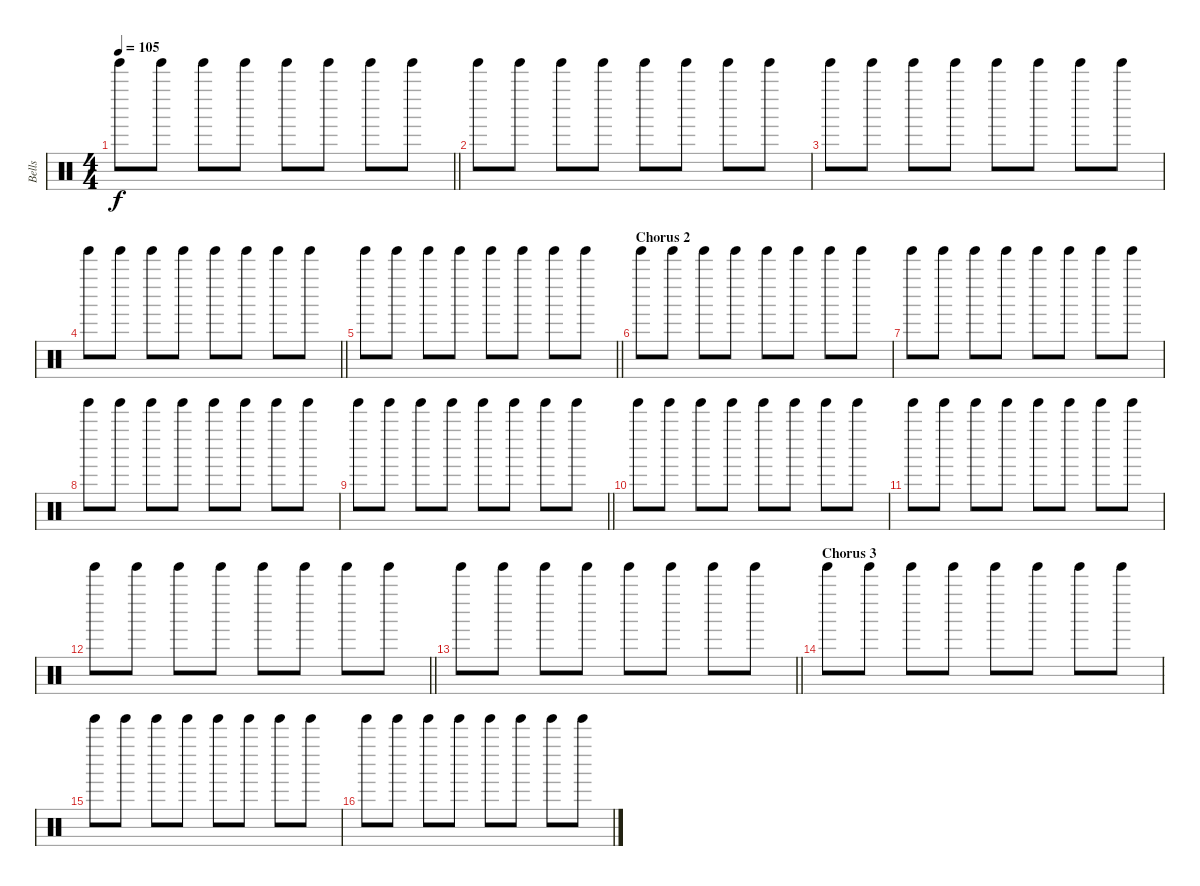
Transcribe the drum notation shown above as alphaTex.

\track ("Bells" "Bells") {instrument percussion}
\staff {score}
\articulation defaults
\ts (4 4)
\tempo 105
\clef neutral
\barLineRight lightlight
\ks c "Tinkle Bell (hit)".8{dy f} "Tinkle Bell (hit)".8 "Tinkle Bell (hit)".8 "Tinkle Bell (hit)".8 "Tinkle Bell (hit)".8 "Tinkle Bell (hit)".8 "Tinkle Bell (hit)".8 "Tinkle Bell (hit)".8
|
"Tinkle Bell (hit)".8 "Tinkle Bell (hit)".8 "Tinkle Bell (hit)".8 "Tinkle Bell (hit)".8 "Tinkle Bell (hit)".8 "Tinkle Bell (hit)".8 "Tinkle Bell (hit)".8 "Tinkle Bell (hit)".8 |
"Tinkle Bell (hit)".8 "Tinkle Bell (hit)".8 "Tinkle Bell (hit)".8 "Tinkle Bell (hit)".8 "Tinkle Bell (hit)".8 "Tinkle Bell (hit)".8 "Tinkle Bell (hit)".8 "Tinkle Bell (hit)".8 |
\barLineRight lightlight "Tinkle Bell (hit)".8 "Tinkle Bell (hit)".8 "Tinkle Bell (hit)".8 "Tinkle Bell (hit)".8 "Tinkle Bell (hit)".8 "Tinkle Bell (hit)".8 "Tinkle Bell (hit)".8 "Tinkle Bell (hit)".8
|
\barLineRight lightlight "Tinkle Bell (hit)".8 "Tinkle Bell (hit)".8 "Tinkle Bell (hit)".8 "Tinkle Bell (hit)".8 "Tinkle Bell (hit)".8 "Tinkle Bell (hit)".8 "Tinkle Bell (hit)".8 "Tinkle Bell (hit)".8
|
\section ("" "Chorus 2")
"Tinkle Bell (hit)".8 "Tinkle Bell (hit)".8 "Tinkle Bell (hit)".8 "Tinkle Bell (hit)".8 "Tinkle Bell (hit)".8 "Tinkle Bell (hit)".8 "Tinkle Bell (hit)".8 "Tinkle Bell (hit)".8 |
"Tinkle Bell (hit)".8 "Tinkle Bell (hit)".8 "Tinkle Bell (hit)".8 "Tinkle Bell (hit)".8 "Tinkle Bell (hit)".8 "Tinkle Bell (hit)".8 "Tinkle Bell (hit)".8 "Tinkle Bell (hit)".8 |
"Tinkle Bell (hit)".8 "Tinkle Bell (hit)".8 "Tinkle Bell (hit)".8 "Tinkle Bell (hit)".8 "Tinkle Bell (hit)".8 "Tinkle Bell (hit)".8 "Tinkle Bell (hit)".8 "Tinkle Bell (hit)".8 |
\barLineRight lightlight "Tinkle Bell (hit)".8 "Tinkle Bell (hit)".8 "Tinkle Bell (hit)".8 "Tinkle Bell (hit)".8 "Tinkle Bell (hit)".8 "Tinkle Bell (hit)".8 "Tinkle Bell (hit)".8 "Tinkle Bell (hit)".8
|
"Tinkle Bell (hit)".8 "Tinkle Bell (hit)".8 "Tinkle Bell (hit)".8 "Tinkle Bell (hit)".8 "Tinkle Bell (hit)".8 "Tinkle Bell (hit)".8 "Tinkle Bell (hit)".8 "Tinkle Bell (hit)".8 |
"Tinkle Bell (hit)".8 "Tinkle Bell (hit)".8 "Tinkle Bell (hit)".8 "Tinkle Bell (hit)".8 "Tinkle Bell (hit)".8 "Tinkle Bell (hit)".8 "Tinkle Bell (hit)".8 "Tinkle Bell (hit)".8 |
\barLineRight lightlight "Tinkle Bell (hit)".8 "Tinkle Bell (hit)".8 "Tinkle Bell (hit)".8 "Tinkle Bell (hit)".8 "Tinkle Bell (hit)".8 "Tinkle Bell (hit)".8 "Tinkle Bell (hit)".8 "Tinkle Bell (hit)".8
|
\barLineRight lightlight "Tinkle Bell (hit)".8 "Tinkle Bell (hit)".8 "Tinkle Bell (hit)".8 "Tinkle Bell (hit)".8 "Tinkle Bell (hit)".8 "Tinkle Bell (hit)".8 "Tinkle Bell (hit)".8 "Tinkle Bell (hit)".8
|
\section ("" "Chorus 3")
"Tinkle Bell (hit)".8 "Tinkle Bell (hit)".8 "Tinkle Bell (hit)".8 "Tinkle Bell (hit)".8 "Tinkle Bell (hit)".8 "Tinkle Bell (hit)".8 "Tinkle Bell (hit)".8 "Tinkle Bell (hit)".8 |
"Tinkle Bell (hit)".8 "Tinkle Bell (hit)".8 "Tinkle Bell (hit)".8 "Tinkle Bell (hit)".8 "Tinkle Bell (hit)".8 "Tinkle Bell (hit)".8 "Tinkle Bell (hit)".8 "Tinkle Bell (hit)".8 |
"Tinkle Bell (hit)".8 "Tinkle Bell (hit)".8 "Tinkle Bell (hit)".8 "Tinkle Bell (hit)".8 "Tinkle Bell (hit)".8 "Tinkle Bell (hit)".8 "Tinkle Bell (hit)".8 "Tinkle Bell (hit)".8
